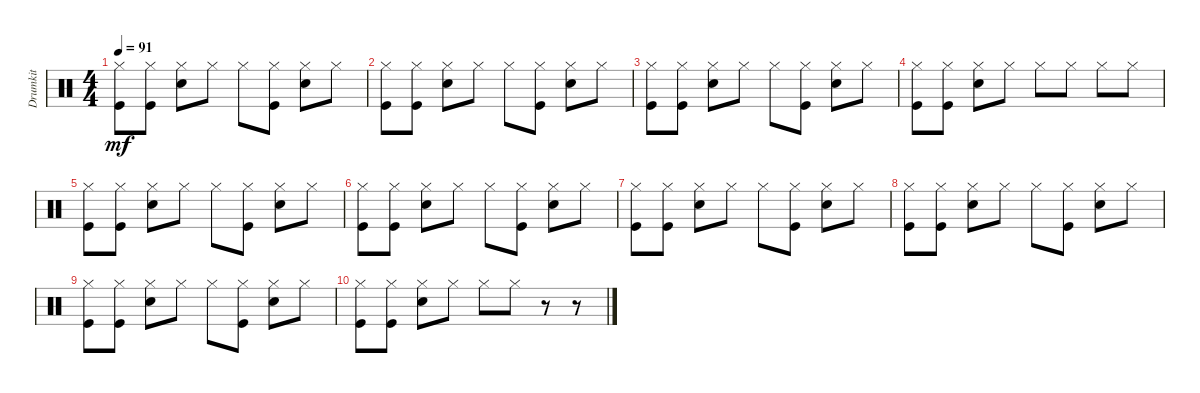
\track ("Drumkit" "Drumkit") {instrument percussion}
\staff {score}
\articulation defaults
\ts (4 4)
\tempo 91
\clef neutral
\ks c
("Kick (hit)" "Hi-Hat (closed)").8{dy mf} ("Kick (hit)" "Hi-Hat (closed)").8 ("Hi-Hat (closed)" "Snare (hit) 2").8 "Hi-Hat (closed)".8 "Hi-Hat (closed)".8 ("Kick (hit)" "Hi-Hat (closed)").8 ("Hi-Hat (closed)" "Snare (hit) 2").8 "Hi-Hat (closed)".8 |
("Kick (hit)" "Hi-Hat (closed)").8 ("Kick (hit)" "Hi-Hat (closed)").8 ("Hi-Hat (closed)" "Snare (hit) 2").8 "Hi-Hat (closed)".8 "Hi-Hat (closed)".8 ("Kick (hit)" "Hi-Hat (closed)").8 ("Hi-Hat (closed)" "Snare (hit) 2").8 "Hi-Hat (closed)".8 |
("Kick (hit)" "Hi-Hat (closed)").8 ("Kick (hit)" "Hi-Hat (closed)").8 ("Hi-Hat (closed)" "Snare (hit) 2").8 "Hi-Hat (closed)".8 "Hi-Hat (closed)".8 ("Kick (hit)" "Hi-Hat (closed)").8 ("Hi-Hat (closed)" "Snare (hit) 2").8 "Hi-Hat (closed)".8 |
("Kick (hit)" "Hi-Hat (closed)").8 ("Kick (hit)" "Hi-Hat (closed)").8 ("Hi-Hat (closed)" "Snare (hit) 2").8 "Hi-Hat (closed)".8 "Hi-Hat (closed)".8 "Hi-Hat (closed)".8 "Hi-Hat (closed)".8 "Hi-Hat (closed)".8 |
("Kick (hit)" "Hi-Hat (closed)").8 ("Kick (hit)" "Hi-Hat (closed)").8 ("Hi-Hat (closed)" "Snare (hit) 2").8 "Hi-Hat (closed)".8 "Hi-Hat (closed)".8 ("Kick (hit)" "Hi-Hat (closed)").8 ("Hi-Hat (closed)" "Snare (hit) 2").8 "Hi-Hat (closed)".8 |
("Kick (hit)" "Hi-Hat (closed)").8 ("Kick (hit)" "Hi-Hat (closed)").8 ("Hi-Hat (closed)" "Snare (hit) 2").8 "Hi-Hat (closed)".8 "Hi-Hat (closed)".8 ("Kick (hit)" "Hi-Hat (closed)").8 ("Hi-Hat (closed)" "Snare (hit) 2").8 "Hi-Hat (closed)".8 |
("Kick (hit)" "Hi-Hat (closed)").8 ("Kick (hit)" "Hi-Hat (closed)").8 ("Hi-Hat (closed)" "Snare (hit) 2").8 "Hi-Hat (closed)".8 "Hi-Hat (closed)".8 ("Kick (hit)" "Hi-Hat (closed)").8 ("Hi-Hat (closed)" "Snare (hit) 2").8 "Hi-Hat (closed)".8 |
("Kick (hit)" "Hi-Hat (closed)").8 ("Kick (hit)" "Hi-Hat (closed)").8 ("Hi-Hat (closed)" "Snare (hit) 2").8 "Hi-Hat (closed)".8 "Hi-Hat (closed)".8 ("Kick (hit)" "Hi-Hat (closed)").8 ("Hi-Hat (closed)" "Snare (hit) 2").8 "Hi-Hat (closed)".8 |
("Kick (hit)" "Hi-Hat (closed)").8 ("Kick (hit)" "Hi-Hat (closed)").8 ("Hi-Hat (closed)" "Snare (hit) 2").8 "Hi-Hat (closed)".8 "Hi-Hat (closed)".8 ("Kick (hit)" "Hi-Hat (closed)").8 ("Hi-Hat (closed)" "Snare (hit) 2").8 "Hi-Hat (closed)".8 |
("Kick (hit)" "Hi-Hat (closed)").8 ("Kick (hit)" "Hi-Hat (closed)").8 ("Hi-Hat (closed)" "Snare (hit) 2").8 "Hi-Hat (closed)".8 "Hi-Hat (closed)".8 "Hi-Hat (closed)".8 r.8 r.8
